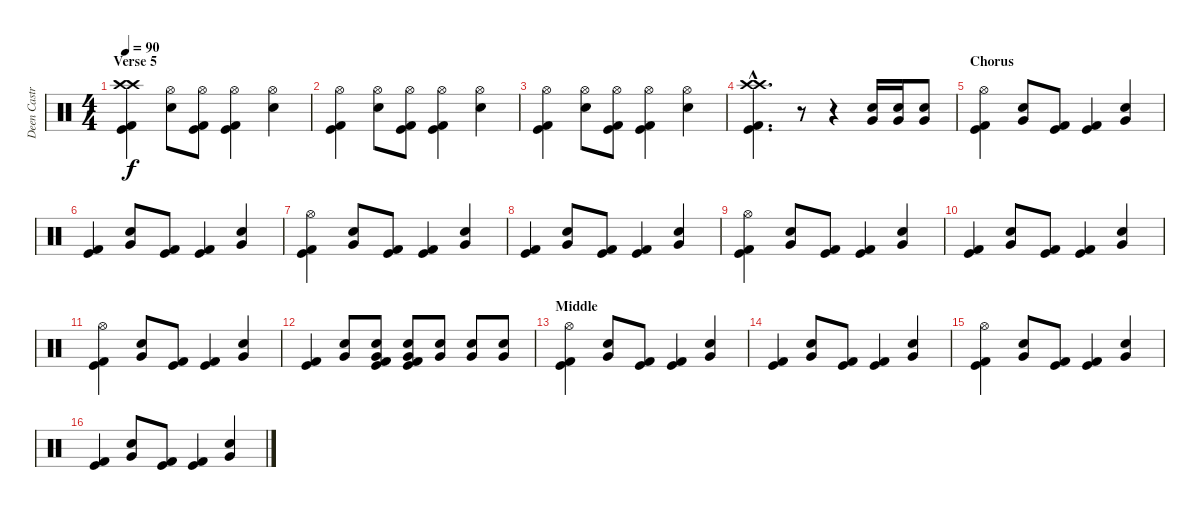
\track ("Deen Castronovo" "Deen Castr") {instrument percussion}
\staff {score}
\articulation defaults
\ts (4 4)
\section ("" "Verse 5")
\tempo 90
\clef neutral
\ks c
("Crash high (hit)" "Crash high (hit)" "Kick (hit) 2" "Kick (hit)").4{dy f} ("Snare (hit) 2" "Hi-Hat (open)").8 ("Hi-Hat (open)" "Kick (hit) 2" "Kick (hit)").8 ("Hi-Hat (open)" "Kick (hit) 2" "Kick (hit)").4 ("Snare (hit) 2" "Hi-Hat (open)").4 |
("Hi-Hat (open)" "Kick (hit) 2" "Kick (hit)").4 ("Snare (hit) 2" "Hi-Hat (open)").8 ("Hi-Hat (open)" "Kick (hit) 2" "Kick (hit)").8 ("Hi-Hat (open)" "Kick (hit) 2" "Kick (hit)").4 ("Snare (hit) 2" "Hi-Hat (open)").4 |
("Hi-Hat (open)" "Kick (hit) 2" "Kick (hit)").4 ("Snare (hit) 2" "Hi-Hat (open)").8 ("Hi-Hat (open)" "Kick (hit) 2" "Kick (hit)").8 ("Hi-Hat (open)" "Kick (hit) 2" "Kick (hit)").4 ("Snare (hit) 2" "Hi-Hat (open)").4 |
("Crash high (hit)"{hac} "Crash high (hit)"{hac} "Kick (hit) 2"{hac} "Kick (hit)"{hac}).4{d} r.8 r.4 ("Snare (hit) 2" "Very Low Tom (hit)").16 ("Snare (hit) 2" "Very Low Tom (hit)").16 ("Snare (hit) 2" "Very Low Tom (hit)").8 |
\section ("" "Chorus")
("Hi-Hat (open)" "Kick (hit) 2" "Kick (hit)").4 ("Snare (hit) 2" "Very Low Tom (hit)").8 ("Kick (hit) 2" "Kick (hit)").8 ("Kick (hit) 2" "Kick (hit)").4 ("Snare (hit) 2" "Very Low Tom (hit)").4 |
("Kick (hit) 2" "Kick (hit)").4 ("Snare (hit) 2" "Very Low Tom (hit)").8 ("Kick (hit) 2" "Kick (hit)").8 ("Kick (hit) 2" "Kick (hit)").4 ("Snare (hit) 2" "Very Low Tom (hit)").4 |
("Hi-Hat (open)" "Kick (hit) 2" "Kick (hit)").4 ("Snare (hit) 2" "Very Low Tom (hit)").8 ("Kick (hit) 2" "Kick (hit)").8 ("Kick (hit) 2" "Kick (hit)").4 ("Snare (hit) 2" "Very Low Tom (hit)").4 |
("Kick (hit) 2" "Kick (hit)").4 ("Snare (hit) 2" "Very Low Tom (hit)").8 ("Kick (hit) 2" "Kick (hit)").8 ("Kick (hit) 2" "Kick (hit)").4 ("Snare (hit) 2" "Very Low Tom (hit)").4 |
("Hi-Hat (open)" "Kick (hit) 2" "Kick (hit)").4 ("Snare (hit) 2" "Very Low Tom (hit)").8 ("Kick (hit) 2" "Kick (hit)").8 ("Kick (hit) 2" "Kick (hit)").4 ("Snare (hit) 2" "Very Low Tom (hit)").4 |
("Kick (hit) 2" "Kick (hit)").4 ("Snare (hit) 2" "Very Low Tom (hit)").8 ("Kick (hit) 2" "Kick (hit)").8 ("Kick (hit) 2" "Kick (hit)").4 ("Snare (hit) 2" "Very Low Tom (hit)").4 |
("Hi-Hat (open)" "Kick (hit) 2" "Kick (hit)").4 ("Snare (hit) 2" "Very Low Tom (hit)").8 ("Kick (hit) 2" "Kick (hit)").8 ("Kick (hit) 2" "Kick (hit)").4 ("Snare (hit) 2" "Very Low Tom (hit)").4 |
("Kick (hit) 2" "Kick (hit)").4 ("Snare (hit) 2" "Very Low Tom (hit)").8 ("Snare (hit) 2" "Very Low Tom (hit)" "Kick (hit) 2" "Kick (hit)").8 ("Snare (hit) 2" "Very Low Tom (hit)" "Kick (hit) 2" "Kick (hit)").8 ("Snare (hit) 2" "Very Low Tom (hit)").8 ("Snare (hit) 2" "Very Low Tom (hit)").8 ("Snare (hit) 2" "Very Low Tom (hit)").8 |
\section ("" "Middle")
("Hi-Hat (open)" "Kick (hit) 2" "Kick (hit)").4 ("Snare (hit) 2" "Very Low Tom (hit)").8 ("Kick (hit) 2" "Kick (hit)").8 ("Kick (hit) 2" "Kick (hit)").4 ("Snare (hit) 2" "Very Low Tom (hit)").4 |
("Kick (hit) 2" "Kick (hit)").4 ("Snare (hit) 2" "Very Low Tom (hit)").8 ("Kick (hit) 2" "Kick (hit)").8 ("Kick (hit) 2" "Kick (hit)").4 ("Snare (hit) 2" "Very Low Tom (hit)").4 |
("Hi-Hat (open)" "Kick (hit) 2" "Kick (hit)").4 ("Snare (hit) 2" "Very Low Tom (hit)").8 ("Kick (hit) 2" "Kick (hit)").8 ("Kick (hit) 2" "Kick (hit)").4 ("Snare (hit) 2" "Very Low Tom (hit)").4 |
("Kick (hit) 2" "Kick (hit)").4 ("Snare (hit) 2" "Very Low Tom (hit)").8 ("Kick (hit) 2" "Kick (hit)").8 ("Kick (hit) 2" "Kick (hit)").4 ("Snare (hit) 2" "Very Low Tom (hit)").4
